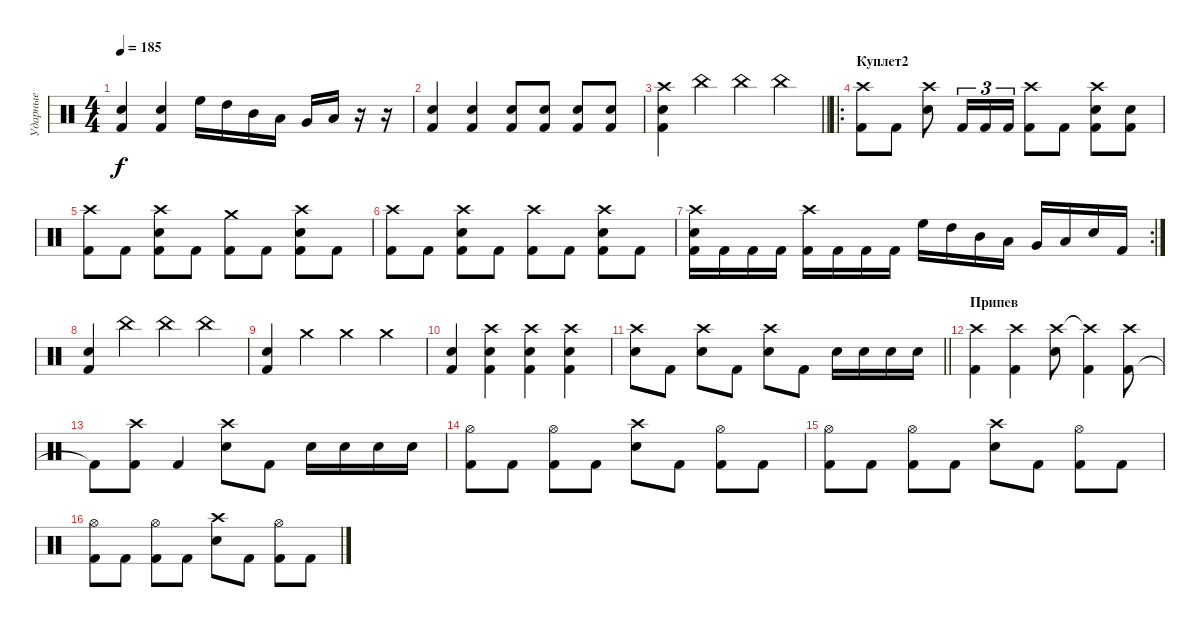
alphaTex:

\track ("Ударные" "Ударные") {instrument percussion}
\staff {score}
\articulation defaults
\ts (4 4)
\tempo 185
\clef neutral
\ks c
("Electric Snare (hit)" "Kick (hit) 2").4{dy f} ("Electric Snare (hit)" "Kick (hit) 2").4 "High Floor Tom (hit)".16 "High Tom (hit)".16 "Mid Tom (hit)".16 "Low Tom (hit)".16 "Very Low Tom (hit)".16 "Low Floor Tom (hit)".16 r.16 r.16 |
("Electric Snare (hit)" "Kick (hit) 2").4 ("Kick (hit) 2" "Electric Snare (hit)").4 ("Kick (hit) 2" "Electric Snare (hit)").8 ("Kick (hit) 2" "Electric Snare (hit)").8 ("Kick (hit) 2" "Electric Snare (hit)").8 ("Kick (hit) 2" "Electric Snare (hit)").8 |
\barLineRight lightlight
("Crash high (hit)" "Kick (hit) 2" "Electric Snare (hit)").4 "China (hit)".4 "China (hit)".4 "China (hit)".4 |
\ro
\section ("" "Куплет2")
("Kick (hit) 2" "Crash high (hit)").8 "Kick (hit) 2".8 ("Electric Snare (hit)" "Crash high (hit)").8 "Kick (hit) 2".16{tu (3 2)} "Kick (hit) 2".16{tu (3 2)} "Kick (hit) 2".16{tu (3 2)} ("Kick (hit) 2" "Crash high (hit)").8 "Kick (hit) 2".8 ("Electric Snare (hit)" "Crash high (hit)" "Kick (hit) 2").8 ("Electric Snare (hit)" "Kick (hit) 2").8 |
("Crash high (hit)" "Kick (hit) 2").8 "Kick (hit) 2".8 ("Crash high (hit)" "Electric Snare (hit)" "Kick (hit) 2").8 "Kick (hit) 2".8 ("Crash medium (hit)" "Kick (hit) 2").8 "Kick (hit) 2".8 ("Crash high (hit)" "Electric Snare (hit)" "Kick (hit) 2").8 "Kick (hit) 2".8 |
("Crash high (hit)" "Kick (hit) 2").8 "Kick (hit) 2".8 ("Crash high (hit)" "Electric Snare (hit)" "Kick (hit) 2").8 "Kick (hit) 2".8 ("Crash high (hit)" "Kick (hit) 2").8 "Kick (hit) 2".8 ("Crash high (hit)" "Electric Snare (hit)" "Kick (hit) 2").8 "Kick (hit) 2".8 |
\rc 2
("Electric Snare (hit)" "Kick (hit) 2" "Crash high (hit)").16 "Kick (hit) 2".16 "Kick (hit) 2".16 "Kick (hit) 2".16 ("Kick (hit) 2" "Crash high (hit)").16 "Kick (hit) 2".16 "Kick (hit) 2".16 "Kick (hit) 2".16 "High Floor Tom (hit)".16 "High Tom (hit)".16 "Mid Tom (hit)".16 "Low Tom (hit)".16 "Very Low Tom (hit)".16 "Low Floor Tom (hit)".16 "Electric Snare (hit)".16 "Kick (hit) 2".16 |
("Electric Snare (hit)" "Kick (hit) 2").4 "China (hit)".4 "China (hit)".4 "China (hit)".4 |
("Electric Snare (hit)" "Kick (hit) 2").4 "Crash medium (hit)".4 "Crash medium (hit)".4 "Crash medium (hit)".4 |
("Electric Snare (hit)" "Kick (hit) 2").4 ("Crash high (hit)" "Electric Snare (hit)" "Kick (hit) 2").4 ("Crash high (hit)" "Electric Snare (hit)" "Kick (hit) 2").4 ("Crash high (hit)" "Electric Snare (hit)" "Kick (hit) 2").4 |
\barLineRight lightlight
("Electric Snare (hit)" "Crash high (hit)").8 "Kick (hit) 2".8 ("Electric Snare (hit)" "Crash high (hit)").8 "Kick (hit) 2".8 ("Electric Snare (hit)" "Crash high (hit)").8 "Kick (hit) 2".8 "Electric Snare (hit)".16 "Electric Snare (hit)".16 "Electric Snare (hit)".16 "Electric Snare (hit)".16 |
\section ("" "Припев")
("Kick (hit) 2" "Crash high (hit)").4 ("Kick (hit) 2" "Crash high (hit)").4 ("Electric Snare (hit)" "Crash high (hit)").8 ("Kick (hit) 2" "Crash high (hit)"{t}).4 ("Kick (hit) 2" "Crash high (hit)").8 |
"Kick (hit) 2"{t}.8 ("Kick (hit) 2" "Crash high (hit)").8 "Kick (hit) 2".4 ("Electric Snare (hit)" "Crash high (hit)").8 "Kick (hit) 2".8 "Electric Snare (hit)".16 "Electric Snare (hit)".16 "Electric Snare (hit)".16 "Electric Snare (hit)".16 |
("Kick (hit) 2" "Hi-Hat (open)").8 "Kick (hit) 2".8 ("Kick (hit) 2" "Hi-Hat (open)").8 "Kick (hit) 2".8 ("Electric Snare (hit)" "Crash high (hit)").8 "Kick (hit) 2".8 ("Kick (hit) 2" "Hi-Hat (open)").8 "Kick (hit) 2".8 |
("Kick (hit) 2" "Hi-Hat (open)").8 "Kick (hit) 2".8 ("Kick (hit) 2" "Hi-Hat (open)").8 "Kick (hit) 2".8 ("Electric Snare (hit)" "Crash high (hit)").8 "Kick (hit) 2".8 ("Kick (hit) 2" "Hi-Hat (open)").8 "Kick (hit) 2".8 |
("Kick (hit) 2" "Hi-Hat (open)").8 "Kick (hit) 2".8 ("Kick (hit) 2" "Hi-Hat (open)").8 "Kick (hit) 2".8 ("Electric Snare (hit)" "Crash high (hit)").8 "Kick (hit) 2".8 ("Kick (hit) 2" "Hi-Hat (open)").8 "Kick (hit) 2".8
